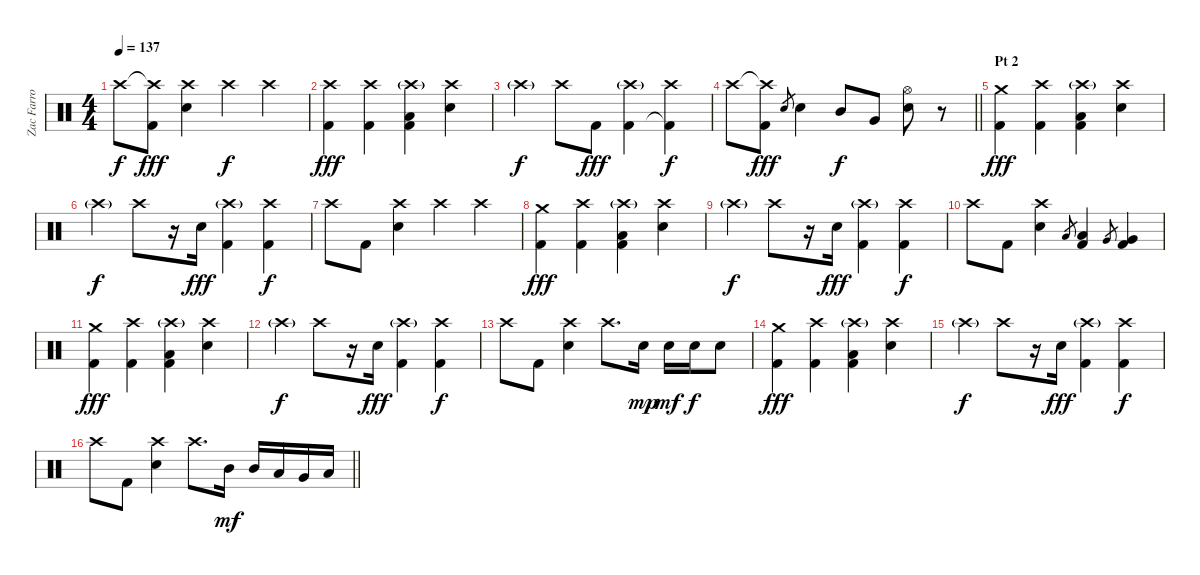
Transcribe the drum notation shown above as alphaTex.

\track ("Zac Farro" "Zac Farro") {instrument percussion}
\staff
\articulation defaults
\ts (4 4)
\tempo 137
\clef neutral
\ks c "Crash high (hit)".8{dy f}
("Crash high (hit)"{t} "Kick (hit) 2").8{dy fff} ("Crash high (hit)" "Electric Snare (hit)").4 "Crash high (hit)".4{dy f} "Crash high (hit)".4 |
("Crash high (hit)" "Kick (hit) 2").4{dy fff} ("Crash high (hit)" "Kick (hit) 2").4 ("Crash high (hit)"{g} "Low Floor Tom (hit)" "Kick (hit) 2").4 ("Crash high (hit)" "Electric Snare (hit)").4 |
"Crash high (hit)"{g}.4{dy f} "Crash high (hit)".8 "Kick (hit) 2".8{dy fff} ("Crash high (hit)"{g} "Kick (hit) 2").4 ("Crash high (hit)" "Kick (hit) 2"{t}).4{dy f} |
\barLineRight lightlight "Crash high (hit)".8
("Crash high (hit)"{t} "Kick (hit) 2").8{dy fff} "Electric Snare (hit)".8{gr} "Electric Snare (hit)".4 "Mid Tom (hit)".8{dy f} "Very Low Tom (hit)".8 ("Hi-Hat (open)" "Electric Snare (hit)").8 r.8 |
\section ("" "Pt 2")
("Crash medium (hit)" "Kick (hit) 2").4{dy fff} ("Crash high (hit)" "Kick (hit) 2").4 ("Crash high (hit)"{g} "Low Floor Tom (hit)" "Kick (hit) 2").4 ("Crash high (hit)" "Electric Snare (hit)").4 |
"Crash high (hit)"{g}.4{dy f} "Crash high (hit)".8 r.16 "Electric Snare (hit)".16{dy fff} ("Crash high (hit)"{g} "Kick (hit) 2").4 ("Crash high (hit)" "Kick (hit) 2").4{dy f} |
"Crash high (hit)".8 "Kick (hit) 2".8 ("Crash high (hit)" "Electric Snare (hit)").4 "Crash high (hit)".4 "Crash high (hit)".4 |
("Crash medium (hit)" "Kick (hit) 2").4{dy fff} ("Crash high (hit)" "Kick (hit) 2").4 ("Crash high (hit)"{g} "Low Floor Tom (hit)" "Kick (hit) 2").4 ("Crash high (hit)" "Electric Snare (hit)").4 |
"Crash high (hit)"{g}.4{dy f} "Crash high (hit)".8 r.16 "Electric Snare (hit)".16{dy fff} ("Crash high (hit)"{g} "Kick (hit) 2").4 ("Crash high (hit)" "Kick (hit) 2").4{dy f} |
"Crash high (hit)".8 "Kick (hit) 2".8 ("Crash high (hit)" "Electric Snare (hit)").4 "Low Tom (hit)".8{gr} ("Low Tom (hit)" "Kick (hit) 2").4 "Very Low Tom (hit)".8{gr} ("Very Low Tom (hit)" "Kick (hit) 2").4 |
("Crash medium (hit)" "Kick (hit) 2").4{dy fff} ("Crash high (hit)" "Kick (hit) 2").4 ("Crash high (hit)"{g} "Low Floor Tom (hit)" "Kick (hit) 2").4 ("Crash high (hit)" "Electric Snare (hit)").4 |
"Crash high (hit)"{g}.4{dy f} "Crash high (hit)".8 r.16 "Electric Snare (hit)".16{dy fff} ("Crash high (hit)"{g} "Kick (hit) 2").4 ("Crash high (hit)" "Kick (hit) 2").4{dy f} |
"Crash high (hit)".8 "Kick (hit) 2".8 ("Crash high (hit)" "Electric Snare (hit)").4 "Crash high (hit)".8{d} "Electric Snare (hit)".16{dy mp} "Electric Snare (hit)".16{dy mf} "Electric Snare (hit)".16{dy f} "Electric Snare (hit)".8 |
("Crash medium (hit)" "Kick (hit) 2").4{dy fff} ("Crash high (hit)" "Kick (hit) 2").4 ("Crash high (hit)"{g} "Low Floor Tom (hit)" "Kick (hit) 2").4 ("Crash high (hit)" "Electric Snare (hit)").4 |
"Crash high (hit)"{g}.4{dy f} "Crash high (hit)".8 r.16 "Electric Snare (hit)".16{dy fff} ("Crash high (hit)"{g} "Kick (hit) 2").4 ("Crash high (hit)" "Kick (hit) 2").4{dy f} |
\barLineRight lightlight "Crash high (hit)".8 "Kick (hit) 2".8
("Crash high (hit)" "Electric Snare (hit)").4 "Crash high (hit)".8{d} "Mid Tom (hit)".16{dy mf} "Mid Tom (hit)".16 "Low Tom (hit)".16 "Very Low Tom (hit)".16 "Low Floor Tom (hit)".16
